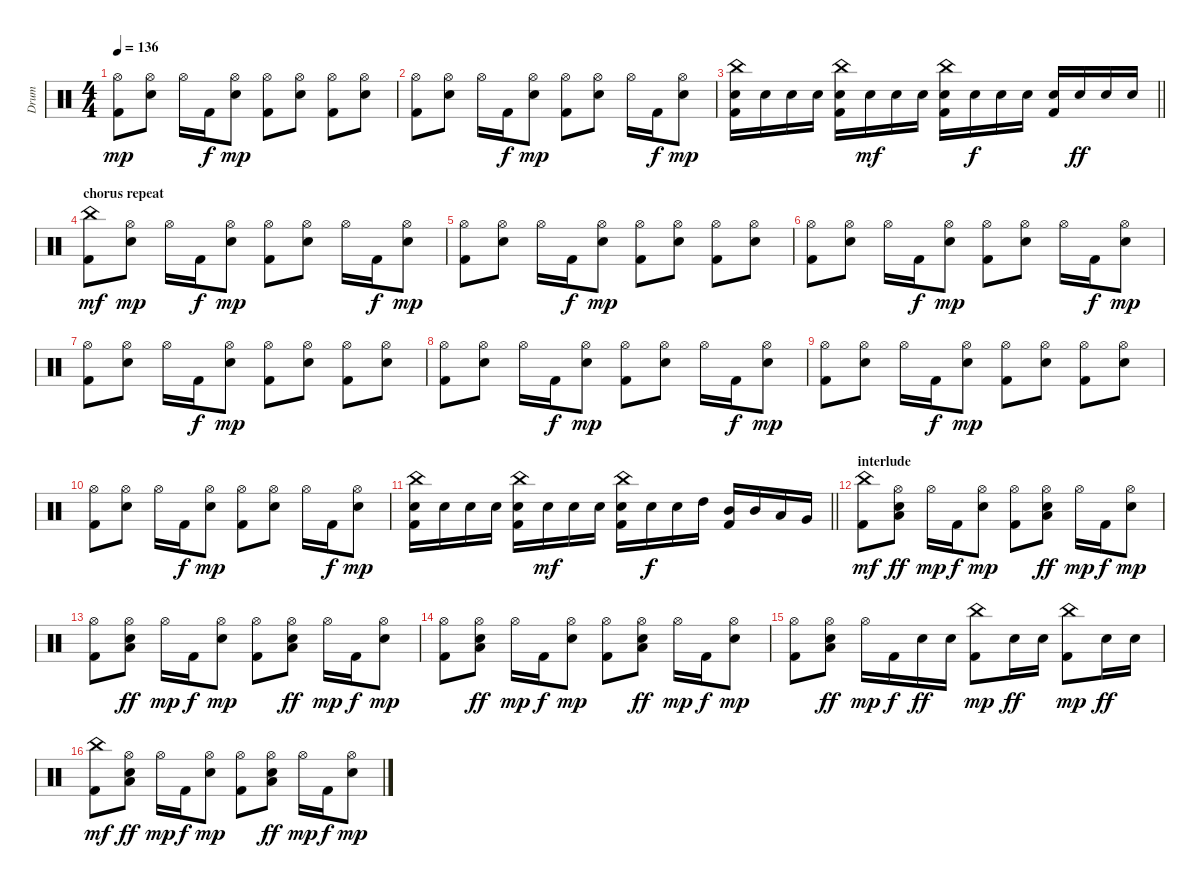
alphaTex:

\track ("Drum" "Drum") {instrument percussion}
\staff {score}
\articulation defaults
\ts (4 4)
\tempo 136
\clef neutral
\ks c
("Kick (hit) 2" "Hi-Hat (open)").8{dy mp} ("Electric Snare (hit)" "Hi-Hat (open)").8 "Hi-Hat (open)".16 "Kick (hit) 2".16{dy f} ("Electric Snare (hit)" "Hi-Hat (open)").8{dy mp} ("Kick (hit) 2" "Hi-Hat (open)").8 ("Electric Snare (hit)" "Hi-Hat (open)").8 ("Kick (hit) 2" "Hi-Hat (open)").8 ("Electric Snare (hit)" "Hi-Hat (open)").8 |
("Kick (hit) 2" "Hi-Hat (open)").8 ("Electric Snare (hit)" "Hi-Hat (open)").8 "Hi-Hat (open)".16 "Kick (hit) 2".16{dy f} ("Electric Snare (hit)" "Hi-Hat (open)").8{dy mp} ("Kick (hit) 2" "Hi-Hat (open)").8 ("Electric Snare (hit)" "Hi-Hat (open)").8 "Hi-Hat (open)".16 "Kick (hit) 2".16{dy f} ("Electric Snare (hit)" "Hi-Hat (open)").8{dy mp} |
\barLineRight lightlight
("Electric Snare (hit)" "Kick (hit) 2" "China (hit)").16 "Electric Snare (hit)".16 "Electric Snare (hit)".16 "Electric Snare (hit)".16 ("Electric Snare (hit)" "Kick (hit) 2" "China (hit)").16 "Electric Snare (hit)".16{dy mf} "Electric Snare (hit)".16 "Electric Snare (hit)".16 ("Electric Snare (hit)" "Kick (hit) 2" "China (hit)").16 "Electric Snare (hit)".16{dy f} "Electric Snare (hit)".16 "Electric Snare (hit)".16 ("Electric Snare (hit)" "Kick (hit) 2").16 "Electric Snare (hit)".16{dy ff} "Electric Snare (hit)".16 "Electric Snare (hit)".16 |
\section ("" "chorus repeat")
("Kick (hit) 2" "China (hit)").8{dy mf} ("Electric Snare (hit)" "Hi-Hat (open)").8{dy mp} "Hi-Hat (open)".16 "Kick (hit) 2".16{dy f} ("Electric Snare (hit)" "Hi-Hat (open)").8{dy mp} ("Kick (hit) 2" "Hi-Hat (open)").8 ("Electric Snare (hit)" "Hi-Hat (open)").8 "Hi-Hat (open)".16 "Kick (hit) 2".16{dy f} ("Electric Snare (hit)" "Hi-Hat (open)").8{dy mp} |
("Kick (hit) 2" "Hi-Hat (open)").8 ("Electric Snare (hit)" "Hi-Hat (open)").8 "Hi-Hat (open)".16 "Kick (hit) 2".16{dy f} ("Electric Snare (hit)" "Hi-Hat (open)").8{dy mp} ("Kick (hit) 2" "Hi-Hat (open)").8 ("Electric Snare (hit)" "Hi-Hat (open)").8 ("Kick (hit) 2" "Hi-Hat (open)").8 ("Electric Snare (hit)" "Hi-Hat (open)").8 |
("Kick (hit) 2" "Hi-Hat (open)").8 ("Electric Snare (hit)" "Hi-Hat (open)").8 "Hi-Hat (open)".16 "Kick (hit) 2".16{dy f} ("Electric Snare (hit)" "Hi-Hat (open)").8{dy mp} ("Kick (hit) 2" "Hi-Hat (open)").8 ("Electric Snare (hit)" "Hi-Hat (open)").8 "Hi-Hat (open)".16 "Kick (hit) 2".16{dy f} ("Electric Snare (hit)" "Hi-Hat (open)").8{dy mp} |
("Kick (hit) 2" "Hi-Hat (open)").8 ("Electric Snare (hit)" "Hi-Hat (open)").8 "Hi-Hat (open)".16 "Kick (hit) 2".16{dy f} ("Electric Snare (hit)" "Hi-Hat (open)").8{dy mp} ("Kick (hit) 2" "Hi-Hat (open)").8 ("Electric Snare (hit)" "Hi-Hat (open)").8 ("Kick (hit) 2" "Hi-Hat (open)").8 ("Electric Snare (hit)" "Hi-Hat (open)").8 |
("Kick (hit) 2" "Hi-Hat (open)").8 ("Electric Snare (hit)" "Hi-Hat (open)").8 "Hi-Hat (open)".16 "Kick (hit) 2".16{dy f} ("Electric Snare (hit)" "Hi-Hat (open)").8{dy mp} ("Kick (hit) 2" "Hi-Hat (open)").8 ("Electric Snare (hit)" "Hi-Hat (open)").8 "Hi-Hat (open)".16 "Kick (hit) 2".16{dy f} ("Electric Snare (hit)" "Hi-Hat (open)").8{dy mp} |
("Kick (hit) 2" "Hi-Hat (open)").8 ("Electric Snare (hit)" "Hi-Hat (open)").8 "Hi-Hat (open)".16 "Kick (hit) 2".16{dy f} ("Electric Snare (hit)" "Hi-Hat (open)").8{dy mp} ("Kick (hit) 2" "Hi-Hat (open)").8 ("Electric Snare (hit)" "Hi-Hat (open)").8 ("Kick (hit) 2" "Hi-Hat (open)").8 ("Electric Snare (hit)" "Hi-Hat (open)").8 |
("Kick (hit) 2" "Hi-Hat (open)").8 ("Electric Snare (hit)" "Hi-Hat (open)").8 "Hi-Hat (open)".16 "Kick (hit) 2".16{dy f} ("Electric Snare (hit)" "Hi-Hat (open)").8{dy mp} ("Kick (hit) 2" "Hi-Hat (open)").8 ("Electric Snare (hit)" "Hi-Hat (open)").8 "Hi-Hat (open)".16 "Kick (hit) 2".16{dy f} ("Electric Snare (hit)" "Hi-Hat (open)").8{dy mp} |
\barLineRight lightlight
("Electric Snare (hit)" "Kick (hit) 2" "China (hit)").16 "Electric Snare (hit)".16 "Electric Snare (hit)".16 "Electric Snare (hit)".16 ("Electric Snare (hit)" "Kick (hit) 2" "China (hit)").16 "Electric Snare (hit)".16{dy mf} "Electric Snare (hit)".16 "Electric Snare (hit)".16 ("Electric Snare (hit)" "Kick (hit) 2" "China (hit)").16 "Electric Snare (hit)".16{dy f} "Electric Snare (hit)".16 "High Tom (hit)".16 ("Mid Tom (hit)" "Kick (hit) 2").16 "Mid Tom (hit)".16 "Low Tom (hit)".16 "Very Low Tom (hit)".16 |
\section ("" "interlude")
("Kick (hit) 2" "China (hit)").8{dy mf} ("Electric Snare (hit)" "Hi-Hat (open)" "Low Tom (hit)").8{dy ff} "Hi-Hat (open)".16{dy mp} "Kick (hit) 2".16{dy f} ("Electric Snare (hit)" "Hi-Hat (open)").8{dy mp} ("Kick (hit) 2" "Hi-Hat (open)").8 ("Electric Snare (hit)" "Hi-Hat (open)" "Low Tom (hit)").8{dy ff} "Hi-Hat (open)".16{dy mp} "Kick (hit) 2".16{dy f} ("Electric Snare (hit)" "Hi-Hat (open)").8{dy mp} |
("Kick (hit) 2" "Hi-Hat (open)").8 ("Electric Snare (hit)" "Hi-Hat (open)" "Low Tom (hit)").8{dy ff} "Hi-Hat (open)".16{dy mp} "Kick (hit) 2".16{dy f} ("Electric Snare (hit)" "Hi-Hat (open)").8{dy mp} ("Kick (hit) 2" "Hi-Hat (open)").8 ("Electric Snare (hit)" "Hi-Hat (open)" "Low Tom (hit)").8{dy ff} "Hi-Hat (open)".16{dy mp} "Kick (hit) 2".16{dy f} ("Electric Snare (hit)" "Hi-Hat (open)").8{dy mp} |
("Kick (hit) 2" "Hi-Hat (open)").8 ("Electric Snare (hit)" "Hi-Hat (open)" "Low Tom (hit)").8{dy ff} "Hi-Hat (open)".16{dy mp} "Kick (hit) 2".16{dy f} ("Electric Snare (hit)" "Hi-Hat (open)").8{dy mp} ("Kick (hit) 2" "Hi-Hat (open)").8 ("Electric Snare (hit)" "Hi-Hat (open)" "Low Tom (hit)").8{dy ff} "Hi-Hat (open)".16{dy mp} "Kick (hit) 2".16{dy f} ("Electric Snare (hit)" "Hi-Hat (open)").8{dy mp} |
("Kick (hit) 2" "Hi-Hat (open)").8 ("Electric Snare (hit)" "Hi-Hat (open)" "Low Tom (hit)").8{dy ff} "Hi-Hat (open)".16{dy mp} "Kick (hit) 2".16{dy f} "Electric Snare (hit)".16{dy ff} "Electric Snare (hit)".16 ("Kick (hit) 2" "China (hit)").8{dy mp} "Electric Snare (hit)".16{dy ff} "Electric Snare (hit)".16 ("Kick (hit) 2" "China (hit)").8{dy mp} "Electric Snare (hit)".16{dy ff} "Electric Snare (hit)".16 |
("Kick (hit) 2" "China (hit)").8{dy mf} ("Electric Snare (hit)" "Hi-Hat (open)" "Low Tom (hit)").8{dy ff} "Hi-Hat (open)".16{dy mp} "Kick (hit) 2".16{dy f} ("Electric Snare (hit)" "Hi-Hat (open)").8{dy mp} ("Kick (hit) 2" "Hi-Hat (open)").8 ("Electric Snare (hit)" "Hi-Hat (open)" "Low Tom (hit)").8{dy ff} "Hi-Hat (open)".16{dy mp} "Kick (hit) 2".16{dy f} ("Electric Snare (hit)" "Hi-Hat (open)").8{dy mp}
